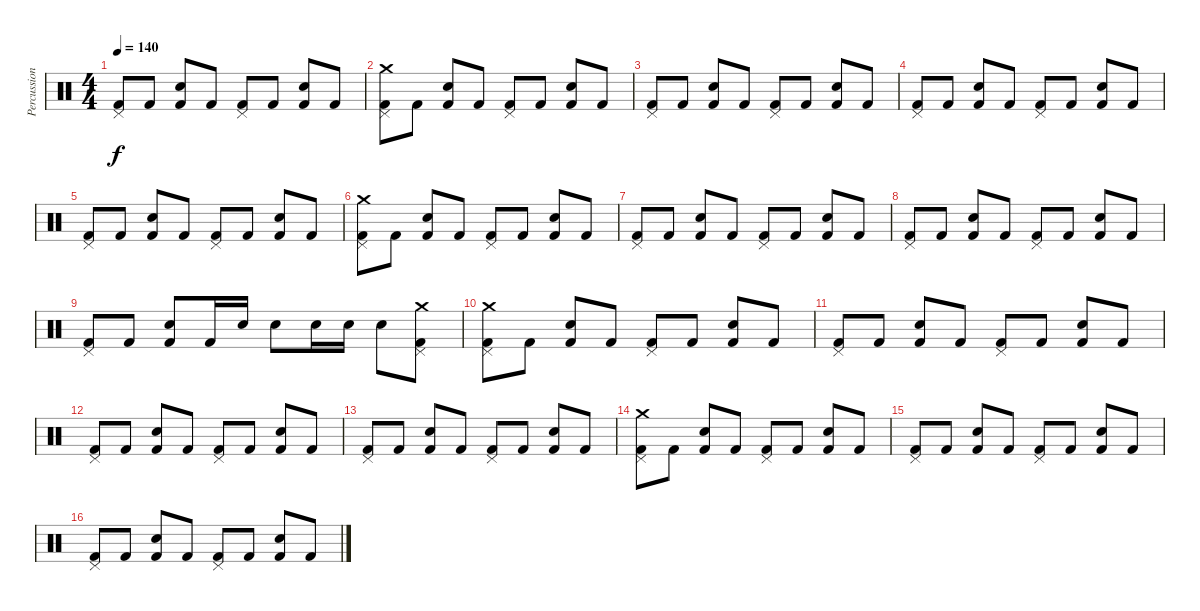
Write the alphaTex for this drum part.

\track ("Percussion" "Percussion") {instrument percussion}
\staff {score}
\articulation defaults
\ts (4 4)
\tempo 140
\clef neutral
\ks c
("Kick (hit) 2" "Pedal Hi-Hat (hit)").8{dy f} "Kick (hit) 2".8 ("Kick (hit) 2" "Electric Snare (hit)").8 "Kick (hit) 2".8 ("Kick (hit) 2" "Pedal Hi-Hat (hit)").8 "Kick (hit) 2".8 ("Kick (hit) 2" "Electric Snare (hit)").8 "Kick (hit) 2".8 |
("Kick (hit) 2" "Pedal Hi-Hat (hit)" "Crash medium (hit)").8 "Kick (hit) 2".8 ("Kick (hit) 2" "Electric Snare (hit)").8 "Kick (hit) 2".8 ("Kick (hit) 2" "Pedal Hi-Hat (hit)").8 "Kick (hit) 2".8 ("Kick (hit) 2" "Electric Snare (hit)").8 "Kick (hit) 2".8 |
("Kick (hit) 2" "Pedal Hi-Hat (hit)").8 "Kick (hit) 2".8 ("Kick (hit) 2" "Electric Snare (hit)").8 "Kick (hit) 2".8 ("Kick (hit) 2" "Pedal Hi-Hat (hit)").8 "Kick (hit) 2".8 ("Kick (hit) 2" "Electric Snare (hit)").8 "Kick (hit) 2".8 |
("Kick (hit) 2" "Pedal Hi-Hat (hit)").8 "Kick (hit) 2".8 ("Kick (hit) 2" "Electric Snare (hit)").8 "Kick (hit) 2".8 ("Kick (hit) 2" "Pedal Hi-Hat (hit)").8 "Kick (hit) 2".8 ("Kick (hit) 2" "Electric Snare (hit)").8 "Kick (hit) 2".8 |
("Kick (hit) 2" "Pedal Hi-Hat (hit)").8 "Kick (hit) 2".8 ("Kick (hit) 2" "Electric Snare (hit)").8 "Kick (hit) 2".8 ("Kick (hit) 2" "Pedal Hi-Hat (hit)").8 "Kick (hit) 2".8 ("Kick (hit) 2" "Electric Snare (hit)").8 "Kick (hit) 2".8 |
("Kick (hit) 2" "Pedal Hi-Hat (hit)" "Crash medium (hit)").8 "Kick (hit) 2".8 ("Kick (hit) 2" "Electric Snare (hit)").8 "Kick (hit) 2".8 ("Kick (hit) 2" "Pedal Hi-Hat (hit)").8 "Kick (hit) 2".8 ("Kick (hit) 2" "Electric Snare (hit)").8 "Kick (hit) 2".8 |
("Kick (hit) 2" "Pedal Hi-Hat (hit)").8 "Kick (hit) 2".8 ("Kick (hit) 2" "Electric Snare (hit)").8 "Kick (hit) 2".8 ("Kick (hit) 2" "Pedal Hi-Hat (hit)").8 "Kick (hit) 2".8 ("Kick (hit) 2" "Electric Snare (hit)").8 "Kick (hit) 2".8 |
("Kick (hit) 2" "Pedal Hi-Hat (hit)").8 "Kick (hit) 2".8 ("Kick (hit) 2" "Electric Snare (hit)").8 "Kick (hit) 2".8 ("Kick (hit) 2" "Pedal Hi-Hat (hit)").8 "Kick (hit) 2".8 ("Kick (hit) 2" "Electric Snare (hit)").8 "Kick (hit) 2".8 |
("Kick (hit) 2" "Pedal Hi-Hat (hit)").8 "Kick (hit) 2".8 ("Kick (hit) 2" "Electric Snare (hit)").8 "Kick (hit) 2".16 "Electric Snare (hit)".16 "Electric Snare (hit)".8 "Electric Snare (hit)".16 "Electric Snare (hit)".16 "Electric Snare (hit)".8 ("Kick (hit) 2" "Pedal Hi-Hat (hit)" "Crash medium (hit)").8 |
("Kick (hit) 2" "Pedal Hi-Hat (hit)" "Crash medium (hit)").8 "Kick (hit) 2".8 ("Kick (hit) 2" "Electric Snare (hit)").8 "Kick (hit) 2".8 ("Kick (hit) 2" "Pedal Hi-Hat (hit)").8 "Kick (hit) 2".8 ("Kick (hit) 2" "Electric Snare (hit)").8 "Kick (hit) 2".8 |
("Kick (hit) 2" "Pedal Hi-Hat (hit)").8 "Kick (hit) 2".8 ("Kick (hit) 2" "Electric Snare (hit)").8 "Kick (hit) 2".8 ("Kick (hit) 2" "Pedal Hi-Hat (hit)").8 "Kick (hit) 2".8 ("Kick (hit) 2" "Electric Snare (hit)").8 "Kick (hit) 2".8 |
("Kick (hit) 2" "Pedal Hi-Hat (hit)").8 "Kick (hit) 2".8 ("Kick (hit) 2" "Electric Snare (hit)").8 "Kick (hit) 2".8 ("Kick (hit) 2" "Pedal Hi-Hat (hit)").8 "Kick (hit) 2".8 ("Kick (hit) 2" "Electric Snare (hit)").8 "Kick (hit) 2".8 |
("Kick (hit) 2" "Pedal Hi-Hat (hit)").8 "Kick (hit) 2".8 ("Kick (hit) 2" "Electric Snare (hit)").8 "Kick (hit) 2".8 ("Kick (hit) 2" "Pedal Hi-Hat (hit)").8 "Kick (hit) 2".8 ("Kick (hit) 2" "Electric Snare (hit)").8 "Kick (hit) 2".8 |
("Kick (hit) 2" "Pedal Hi-Hat (hit)" "Crash medium (hit)").8 "Kick (hit) 2".8 ("Kick (hit) 2" "Electric Snare (hit)").8 "Kick (hit) 2".8 ("Kick (hit) 2" "Pedal Hi-Hat (hit)").8 "Kick (hit) 2".8 ("Kick (hit) 2" "Electric Snare (hit)").8 "Kick (hit) 2".8 |
("Kick (hit) 2" "Pedal Hi-Hat (hit)").8 "Kick (hit) 2".8 ("Kick (hit) 2" "Electric Snare (hit)").8 "Kick (hit) 2".8 ("Kick (hit) 2" "Pedal Hi-Hat (hit)").8 "Kick (hit) 2".8 ("Kick (hit) 2" "Electric Snare (hit)").8 "Kick (hit) 2".8 |
("Kick (hit) 2" "Pedal Hi-Hat (hit)").8 "Kick (hit) 2".8 ("Kick (hit) 2" "Electric Snare (hit)").8 "Kick (hit) 2".8 ("Kick (hit) 2" "Pedal Hi-Hat (hit)").8 "Kick (hit) 2".8 ("Kick (hit) 2" "Electric Snare (hit)").8 "Kick (hit) 2".8
